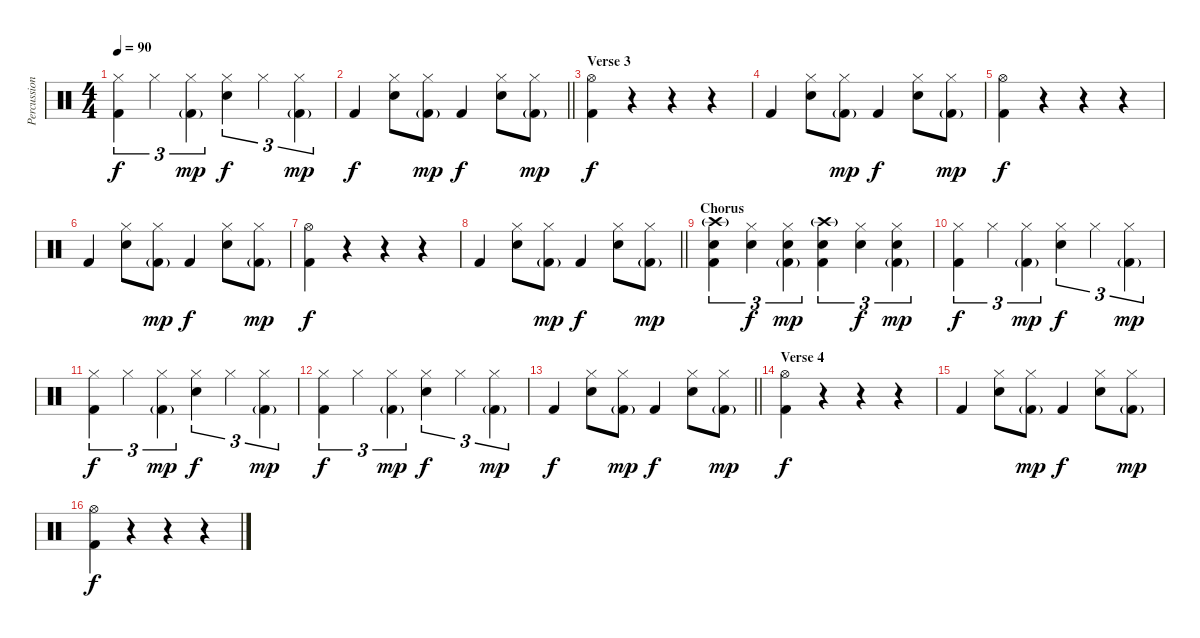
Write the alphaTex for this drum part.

\track ("Percussion" "Percussion") {instrument percussion}
\staff {score}
\articulation defaults
\ts (4 4)
\tempo 90
\clef neutral
\ks c
("Hi-Hat (closed)" "Kick (hit) 2").4{tu (3 2) dy f} "Hi-Hat (closed)".4{tu (3 2)} ("Hi-Hat (closed)" "Kick (hit) 2"{g}).4{tu (3 2) dy mp} ("Hi-Hat (closed)" "Snare (hit) 2").4{tu (3 2) dy f} "Hi-Hat (closed)".4{tu (3 2)} ("Hi-Hat (closed)" "Kick (hit) 2"{g}).4{tu (3 2) dy mp} |
\barLineRight lightlight "Kick (hit) 2".4{dy f}
("Hi-Hat (closed)" "Snare (hit) 2").8 ("Hi-Hat (closed)" "Kick (hit) 2"{g}).8{dy mp} "Kick (hit) 2".4{dy f} ("Hi-Hat (closed)" "Snare (hit) 2").8 ("Hi-Hat (closed)" "Kick (hit) 2"{g}).8{dy mp} |
\section ("" "Verse 3")
("Hi-Hat (open)" "Kick (hit) 2").4{dy f} r.4 r.4 r.4 |
"Kick (hit) 2".4 ("Hi-Hat (closed)" "Snare (hit) 2").8 ("Hi-Hat (closed)" "Kick (hit) 2"{g}).8{dy mp} "Kick (hit) 2".4{dy f} ("Hi-Hat (closed)" "Snare (hit) 2").8 ("Hi-Hat (closed)" "Kick (hit) 2"{g}).8{dy mp} |
("Hi-Hat (open)" "Kick (hit) 2").4{dy f} r.4 r.4 r.4 |
"Kick (hit) 2".4 ("Hi-Hat (closed)" "Snare (hit) 2").8 ("Hi-Hat (closed)" "Kick (hit) 2"{g}).8{dy mp} "Kick (hit) 2".4{dy f} ("Hi-Hat (closed)" "Snare (hit) 2").8 ("Hi-Hat (closed)" "Kick (hit) 2"{g}).8{dy mp} |
("Hi-Hat (open)" "Kick (hit) 2").4{dy f} r.4 r.4 r.4 |
\barLineRight lightlight "Kick (hit) 2".4
("Hi-Hat (closed)" "Snare (hit) 2").8 ("Hi-Hat (closed)" "Kick (hit) 2"{g}).8{dy mp} "Kick (hit) 2".4{dy f} ("Hi-Hat (closed)" "Snare (hit) 2").8 ("Hi-Hat (closed)" "Kick (hit) 2"{g}).8{dy mp} |
\section ("" "Chorus")
("Crash high (hit)"{g} "Snare (hit) 2" "Kick (hit) 2").4{tu (3 2)} ("Hi-Hat (closed)" "Snare (hit) 2").4{tu (3 2) dy f} ("Hi-Hat (closed)" "Snare (hit) 2" "Kick (hit) 2"{g}).4{tu (3 2) dy mp} ("Crash high (hit)"{g} "Snare (hit) 2" "Kick (hit) 2").4{tu (3 2)} ("Hi-Hat (closed)" "Snare (hit) 2").4{tu (3 2) dy f} ("Hi-Hat (closed)" "Snare (hit) 2" "Kick (hit) 2"{g}).4{tu (3 2) dy mp} |
("Hi-Hat (closed)" "Kick (hit) 2").4{tu (3 2) dy f} "Hi-Hat (closed)".4{tu (3 2)} ("Hi-Hat (closed)" "Kick (hit) 2"{g}).4{tu (3 2) dy mp} ("Hi-Hat (closed)" "Snare (hit) 2").4{tu (3 2) dy f} "Hi-Hat (closed)".4{tu (3 2)} ("Hi-Hat (closed)" "Kick (hit) 2"{g}).4{tu (3 2) dy mp} |
("Hi-Hat (closed)" "Kick (hit) 2").4{tu (3 2) dy f} "Hi-Hat (closed)".4{tu (3 2)} ("Hi-Hat (closed)" "Kick (hit) 2"{g}).4{tu (3 2) dy mp} ("Hi-Hat (closed)" "Snare (hit) 2").4{tu (3 2) dy f} "Hi-Hat (closed)".4{tu (3 2)} ("Hi-Hat (closed)" "Kick (hit) 2"{g}).4{tu (3 2) dy mp} |
("Hi-Hat (closed)" "Kick (hit) 2").4{tu (3 2) dy f} "Hi-Hat (closed)".4{tu (3 2)} ("Hi-Hat (closed)" "Kick (hit) 2"{g}).4{tu (3 2) dy mp} ("Hi-Hat (closed)" "Snare (hit) 2").4{tu (3 2) dy f} "Hi-Hat (closed)".4{tu (3 2)} ("Hi-Hat (closed)" "Kick (hit) 2"{g}).4{tu (3 2) dy mp} |
\barLineRight lightlight "Kick (hit) 2".4{dy f}
("Hi-Hat (closed)" "Snare (hit) 2").8 ("Hi-Hat (closed)" "Kick (hit) 2"{g}).8{dy mp} "Kick (hit) 2".4{dy f} ("Hi-Hat (closed)" "Snare (hit) 2").8 ("Hi-Hat (closed)" "Kick (hit) 2"{g}).8{dy mp} |
\section ("" "Verse 4")
("Hi-Hat (open)" "Kick (hit) 2").4{dy f} r.4 r.4 r.4 |
"Kick (hit) 2".4 ("Hi-Hat (closed)" "Snare (hit) 2").8 ("Hi-Hat (closed)" "Kick (hit) 2"{g}).8{dy mp} "Kick (hit) 2".4{dy f} ("Hi-Hat (closed)" "Snare (hit) 2").8 ("Hi-Hat (closed)" "Kick (hit) 2"{g}).8{dy mp} |
("Hi-Hat (open)" "Kick (hit) 2").4{dy f} r.4 r.4 r.4
